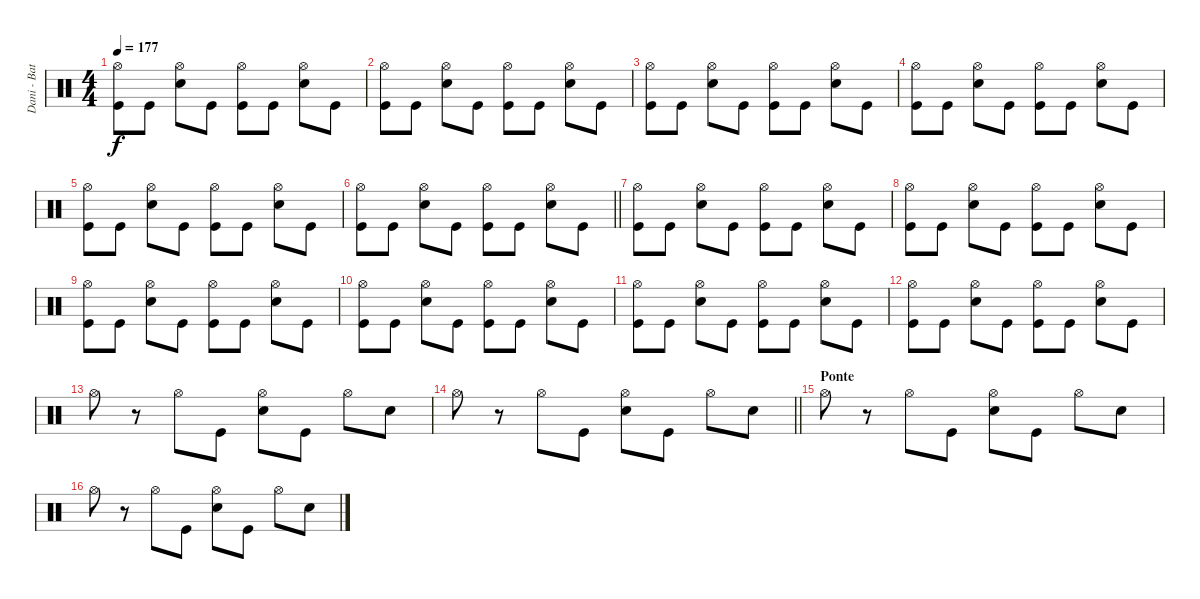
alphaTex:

\track ("Dani - Bateria" "Dani - Bat") {instrument percussion}
\staff {score}
\articulation defaults
\ts (4 4)
\tempo 177
\clef neutral
\ks c
("Hi-Hat (open)" "Kick (hit)").8{dy f} "Kick (hit)".8 ("Hi-Hat (open)" "Electric Snare (hit)").8 "Kick (hit)".8 ("Hi-Hat (open)" "Kick (hit)").8 "Kick (hit)".8 ("Hi-Hat (open)" "Electric Snare (hit)").8 "Kick (hit)".8 |
("Hi-Hat (open)" "Kick (hit)").8 "Kick (hit)".8 ("Hi-Hat (open)" "Electric Snare (hit)").8 "Kick (hit)".8 ("Hi-Hat (open)" "Kick (hit)").8 "Kick (hit)".8 ("Hi-Hat (open)" "Electric Snare (hit)").8 "Kick (hit)".8 |
("Hi-Hat (open)" "Kick (hit)").8 "Kick (hit)".8 ("Hi-Hat (open)" "Electric Snare (hit)").8 "Kick (hit)".8 ("Hi-Hat (open)" "Kick (hit)").8 "Kick (hit)".8 ("Hi-Hat (open)" "Electric Snare (hit)").8 "Kick (hit)".8 |
("Hi-Hat (open)" "Kick (hit)").8 "Kick (hit)".8 ("Hi-Hat (open)" "Electric Snare (hit)").8 "Kick (hit)".8 ("Hi-Hat (open)" "Kick (hit)").8 "Kick (hit)".8 ("Hi-Hat (open)" "Electric Snare (hit)").8 "Kick (hit)".8 |
("Hi-Hat (open)" "Kick (hit)").8 "Kick (hit)".8 ("Hi-Hat (open)" "Electric Snare (hit)").8 "Kick (hit)".8 ("Hi-Hat (open)" "Kick (hit)").8 "Kick (hit)".8 ("Hi-Hat (open)" "Electric Snare (hit)").8 "Kick (hit)".8 |
\barLineRight lightlight
("Hi-Hat (open)" "Kick (hit)").8 "Kick (hit)".8 ("Hi-Hat (open)" "Electric Snare (hit)").8 "Kick (hit)".8 ("Hi-Hat (open)" "Kick (hit)").8 "Kick (hit)".8 ("Hi-Hat (open)" "Electric Snare (hit)").8 "Kick (hit)".8 |
("Hi-Hat (open)" "Kick (hit)").8 "Kick (hit)".8 ("Hi-Hat (open)" "Electric Snare (hit)").8 "Kick (hit)".8 ("Hi-Hat (open)" "Kick (hit)").8 "Kick (hit)".8 ("Hi-Hat (open)" "Electric Snare (hit)").8 "Kick (hit)".8 |
("Hi-Hat (open)" "Kick (hit)").8 "Kick (hit)".8 ("Hi-Hat (open)" "Electric Snare (hit)").8 "Kick (hit)".8 ("Hi-Hat (open)" "Kick (hit)").8 "Kick (hit)".8 ("Hi-Hat (open)" "Electric Snare (hit)").8 "Kick (hit)".8 |
("Hi-Hat (open)" "Kick (hit)").8 "Kick (hit)".8 ("Hi-Hat (open)" "Electric Snare (hit)").8 "Kick (hit)".8 ("Hi-Hat (open)" "Kick (hit)").8 "Kick (hit)".8 ("Hi-Hat (open)" "Electric Snare (hit)").8 "Kick (hit)".8 |
("Hi-Hat (open)" "Kick (hit)").8 "Kick (hit)".8 ("Hi-Hat (open)" "Electric Snare (hit)").8 "Kick (hit)".8 ("Hi-Hat (open)" "Kick (hit)").8 "Kick (hit)".8 ("Hi-Hat (open)" "Electric Snare (hit)").8 "Kick (hit)".8 |
("Hi-Hat (open)" "Kick (hit)").8 "Kick (hit)".8 ("Hi-Hat (open)" "Electric Snare (hit)").8 "Kick (hit)".8 ("Hi-Hat (open)" "Kick (hit)").8 "Kick (hit)".8 ("Hi-Hat (open)" "Electric Snare (hit)").8 "Kick (hit)".8 |
("Hi-Hat (open)" "Kick (hit)").8 "Kick (hit)".8 ("Hi-Hat (open)" "Electric Snare (hit)").8 "Kick (hit)".8 ("Hi-Hat (open)" "Kick (hit)").8 "Kick (hit)".8 ("Hi-Hat (open)" "Electric Snare (hit)").8 "Kick (hit)".8 |
"Hi-Hat (open)".8 r.8 "Hi-Hat (open)".8 "Kick (hit)".8 ("Electric Snare (hit)" "Hi-Hat (open)").8 "Kick (hit)".8 "Hi-Hat (open)".8 "Electric Snare (hit)".8 |
\barLineRight lightlight "Hi-Hat (open)".8
r.8 "Hi-Hat (open)".8 "Kick (hit)".8 ("Electric Snare (hit)" "Hi-Hat (open)").8 "Kick (hit)".8 "Hi-Hat (open)".8 "Electric Snare (hit)".8 |
\section ("" "Ponte")
"Hi-Hat (open)".8 r.8 "Hi-Hat (open)".8 "Kick (hit)".8 ("Electric Snare (hit)" "Hi-Hat (open)").8 "Kick (hit)".8 "Hi-Hat (open)".8 "Electric Snare (hit)".8 |
"Hi-Hat (open)".8 r.8 "Hi-Hat (open)".8 "Kick (hit)".8 ("Electric Snare (hit)" "Hi-Hat (open)").8 "Kick (hit)".8 "Hi-Hat (open)".8 "Electric Snare (hit)".8
